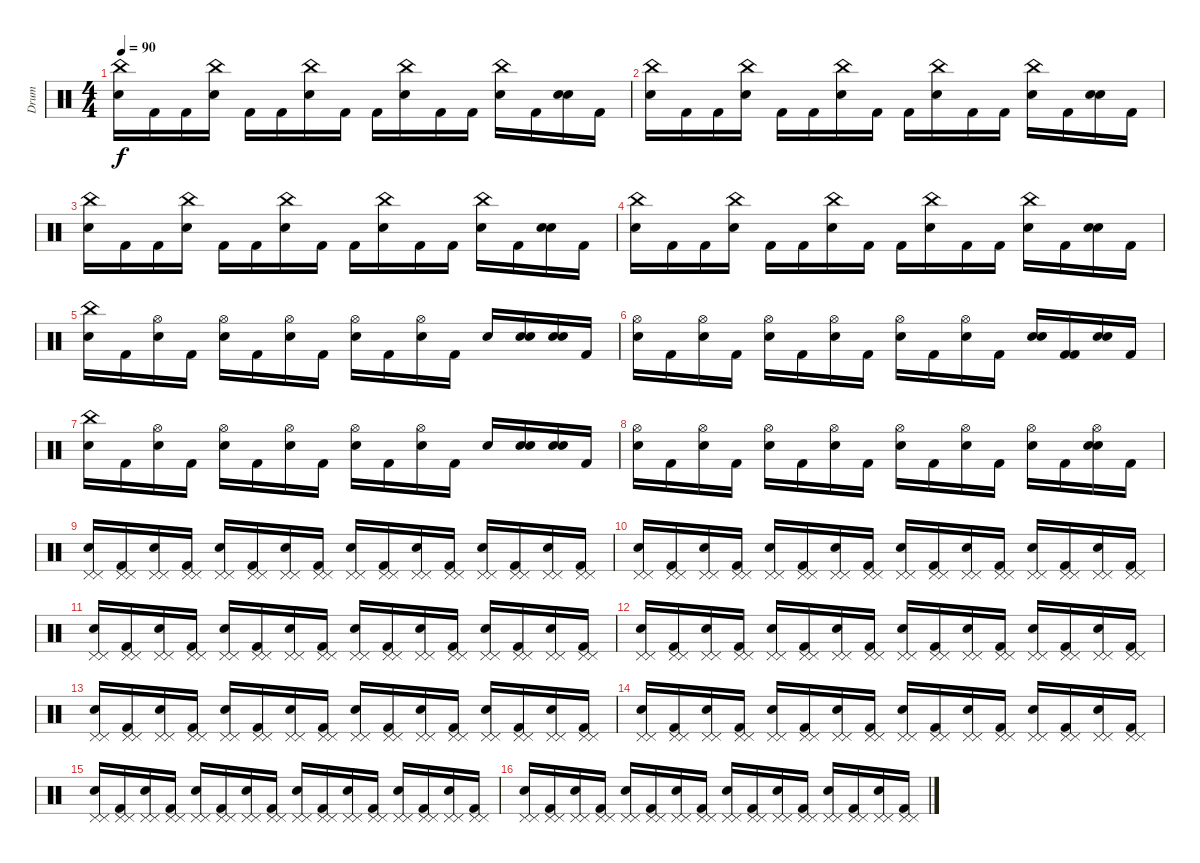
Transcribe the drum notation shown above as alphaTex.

\track ("Drum" "Drum") {instrument percussion}
\staff {score}
\articulation defaults
\ts (4 4)
\tempo 90
\clef neutral
\ks c
("China (hit)" "Electric Snare (hit)").16{dy f} "Kick (hit) 2".16 "Kick (hit) 2".16 ("China (hit)" "Electric Snare (hit)").16 "Kick (hit) 2".16 "Kick (hit) 2".16 ("China (hit)" "Electric Snare (hit)").16 "Kick (hit) 2".16 "Kick (hit) 2".16 ("China (hit)" "Electric Snare (hit)").16 "Kick (hit) 2".16 "Kick (hit) 2".16 ("China (hit)" "Electric Snare (hit)").16 "Kick (hit) 2".16 ("Electric Snare (hit)" "Electric Snare (hit)").16 "Kick (hit) 2".16 |
("China (hit)" "Electric Snare (hit)").16 "Kick (hit) 2".16 "Kick (hit) 2".16 ("China (hit)" "Electric Snare (hit)").16 "Kick (hit) 2".16 "Kick (hit) 2".16 ("China (hit)" "Electric Snare (hit)").16 "Kick (hit) 2".16 "Kick (hit) 2".16 ("China (hit)" "Electric Snare (hit)").16 "Kick (hit) 2".16 "Kick (hit) 2".16 ("China (hit)" "Electric Snare (hit)").16 "Kick (hit) 2".16 ("Electric Snare (hit)" "Electric Snare (hit)").16 "Kick (hit) 2".16 |
("China (hit)" "Electric Snare (hit)").16 "Kick (hit) 2".16 "Kick (hit) 2".16 ("China (hit)" "Electric Snare (hit)").16 "Kick (hit) 2".16 "Kick (hit) 2".16 ("China (hit)" "Electric Snare (hit)").16 "Kick (hit) 2".16 "Kick (hit) 2".16 ("China (hit)" "Electric Snare (hit)").16 "Kick (hit) 2".16 "Kick (hit) 2".16 ("China (hit)" "Electric Snare (hit)").16 "Kick (hit) 2".16 ("Electric Snare (hit)" "Electric Snare (hit)").16 "Kick (hit) 2".16 |
("China (hit)" "Electric Snare (hit)").16 "Kick (hit) 2".16 "Kick (hit) 2".16 ("China (hit)" "Electric Snare (hit)").16 "Kick (hit) 2".16 "Kick (hit) 2".16 ("China (hit)" "Electric Snare (hit)").16 "Kick (hit) 2".16 "Kick (hit) 2".16 ("China (hit)" "Electric Snare (hit)").16 "Kick (hit) 2".16 "Kick (hit) 2".16 ("China (hit)" "Electric Snare (hit)").16 "Kick (hit) 2".16 ("Electric Snare (hit)" "Electric Snare (hit)").16 "Kick (hit) 2".16 |
("China (hit)" "Electric Snare (hit)").16 "Kick (hit) 2".16 ("Hi-Hat (open)" "Electric Snare (hit)").16 "Kick (hit) 2".16 ("Hi-Hat (open)" "Electric Snare (hit)").16 "Kick (hit) 2".16 ("Hi-Hat (open)" "Electric Snare (hit)").16 "Kick (hit) 2".16 ("Hi-Hat (open)" "Electric Snare (hit)").16 "Kick (hit) 2".16 ("Hi-Hat (open)" "Electric Snare (hit)").16 "Kick (hit) 2".16 "Electric Snare (hit)".16 ("Electric Snare (hit)" "Electric Snare (hit)").16 ("Electric Snare (hit)" "Electric Snare (hit)").16 "Kick (hit) 2".16 |
("Hi-Hat (open)" "Electric Snare (hit)").16 "Kick (hit) 2".16 ("Hi-Hat (open)" "Electric Snare (hit)").16 "Kick (hit) 2".16 ("Hi-Hat (open)" "Electric Snare (hit)").16 "Kick (hit) 2".16 ("Hi-Hat (open)" "Electric Snare (hit)").16 "Kick (hit) 2".16 ("Hi-Hat (open)" "Electric Snare (hit)").16 "Kick (hit) 2".16 ("Hi-Hat (open)" "Electric Snare (hit)").16 "Kick (hit) 2".16 ("Electric Snare (hit)" "Electric Snare (hit)").16 ("Kick (hit) 2" "Kick (hit) 2").16 ("Electric Snare (hit)" "Electric Snare (hit)").16 "Kick (hit) 2".16 |
("China (hit)" "Electric Snare (hit)").16 "Kick (hit) 2".16 ("Hi-Hat (open)" "Electric Snare (hit)").16 "Kick (hit) 2".16 ("Hi-Hat (open)" "Electric Snare (hit)").16 "Kick (hit) 2".16 ("Hi-Hat (open)" "Electric Snare (hit)").16 "Kick (hit) 2".16 ("Hi-Hat (open)" "Electric Snare (hit)").16 "Kick (hit) 2".16 ("Hi-Hat (open)" "Electric Snare (hit)").16 "Kick (hit) 2".16 "Electric Snare (hit)".16 ("Electric Snare (hit)" "Electric Snare (hit)").16 ("Electric Snare (hit)" "Electric Snare (hit)").16 "Kick (hit) 2".16 |
("Hi-Hat (open)" "Electric Snare (hit)").16 "Kick (hit) 2".16 ("Hi-Hat (open)" "Electric Snare (hit)").16 "Kick (hit) 2".16 ("Hi-Hat (open)" "Electric Snare (hit)").16 "Kick (hit) 2".16 ("Hi-Hat (open)" "Electric Snare (hit)").16 "Kick (hit) 2".16 ("Hi-Hat (open)" "Electric Snare (hit)").16 "Kick (hit) 2".16 ("Hi-Hat (open)" "Electric Snare (hit)").16 "Kick (hit) 2".16 ("Hi-Hat (open)" "Electric Snare (hit)").16 "Kick (hit) 2".16 ("Hi-Hat (open)" "Electric Snare (hit)" "Electric Snare (hit)").16 "Kick (hit) 2".16 |
("Pedal Hi-Hat (hit)" "Electric Snare (hit)" "Pedal Hi-Hat (hit)").16 ("Pedal Hi-Hat (hit)" "Kick (hit) 2" "Pedal Hi-Hat (hit)").16 ("Pedal Hi-Hat (hit)" "Electric Snare (hit)" "Pedal Hi-Hat (hit)").16 ("Pedal Hi-Hat (hit)" "Kick (hit) 2" "Pedal Hi-Hat (hit)").16 ("Pedal Hi-Hat (hit)" "Electric Snare (hit)" "Pedal Hi-Hat (hit)").16 ("Pedal Hi-Hat (hit)" "Kick (hit) 2" "Pedal Hi-Hat (hit)").16 ("Pedal Hi-Hat (hit)" "Electric Snare (hit)" "Pedal Hi-Hat (hit)").16 ("Pedal Hi-Hat (hit)" "Kick (hit) 2" "Pedal Hi-Hat (hit)").16 ("Pedal Hi-Hat (hit)" "Electric Snare (hit)" "Pedal Hi-Hat (hit)").16 ("Pedal Hi-Hat (hit)" "Kick (hit) 2" "Pedal Hi-Hat (hit)").16 ("Pedal Hi-Hat (hit)" "Electric Snare (hit)" "Pedal Hi-Hat (hit)").16 ("Pedal Hi-Hat (hit)" "Kick (hit) 2" "Pedal Hi-Hat (hit)").16 ("Pedal Hi-Hat (hit)" "Electric Snare (hit)" "Pedal Hi-Hat (hit)").16 ("Pedal Hi-Hat (hit)" "Kick (hit) 2" "Pedal Hi-Hat (hit)").16 ("Pedal Hi-Hat (hit)" "Electric Snare (hit)" "Pedal Hi-Hat (hit)").16 ("Pedal Hi-Hat (hit)" "Kick (hit) 2" "Pedal Hi-Hat (hit)").16 |
("Pedal Hi-Hat (hit)" "Electric Snare (hit)" "Pedal Hi-Hat (hit)").16 ("Pedal Hi-Hat (hit)" "Kick (hit) 2" "Pedal Hi-Hat (hit)").16 ("Pedal Hi-Hat (hit)" "Electric Snare (hit)" "Pedal Hi-Hat (hit)").16 ("Pedal Hi-Hat (hit)" "Kick (hit) 2" "Pedal Hi-Hat (hit)").16 ("Pedal Hi-Hat (hit)" "Electric Snare (hit)" "Pedal Hi-Hat (hit)").16 ("Pedal Hi-Hat (hit)" "Kick (hit) 2" "Pedal Hi-Hat (hit)").16 ("Pedal Hi-Hat (hit)" "Electric Snare (hit)" "Pedal Hi-Hat (hit)").16 ("Pedal Hi-Hat (hit)" "Kick (hit) 2" "Pedal Hi-Hat (hit)").16 ("Pedal Hi-Hat (hit)" "Electric Snare (hit)" "Pedal Hi-Hat (hit)").16 ("Pedal Hi-Hat (hit)" "Kick (hit) 2" "Pedal Hi-Hat (hit)").16 ("Pedal Hi-Hat (hit)" "Electric Snare (hit)" "Pedal Hi-Hat (hit)").16 ("Pedal Hi-Hat (hit)" "Kick (hit) 2" "Pedal Hi-Hat (hit)").16 ("Pedal Hi-Hat (hit)" "Electric Snare (hit)" "Pedal Hi-Hat (hit)").16 ("Pedal Hi-Hat (hit)" "Kick (hit) 2" "Pedal Hi-Hat (hit)").16 ("Pedal Hi-Hat (hit)" "Electric Snare (hit)" "Pedal Hi-Hat (hit)").16 ("Pedal Hi-Hat (hit)" "Kick (hit) 2" "Pedal Hi-Hat (hit)").16 |
("Pedal Hi-Hat (hit)" "Electric Snare (hit)" "Pedal Hi-Hat (hit)").16 ("Pedal Hi-Hat (hit)" "Kick (hit) 2" "Pedal Hi-Hat (hit)").16 ("Pedal Hi-Hat (hit)" "Electric Snare (hit)" "Pedal Hi-Hat (hit)").16 ("Pedal Hi-Hat (hit)" "Kick (hit) 2" "Pedal Hi-Hat (hit)").16 ("Pedal Hi-Hat (hit)" "Electric Snare (hit)" "Pedal Hi-Hat (hit)").16 ("Pedal Hi-Hat (hit)" "Kick (hit) 2" "Pedal Hi-Hat (hit)").16 ("Pedal Hi-Hat (hit)" "Electric Snare (hit)" "Pedal Hi-Hat (hit)").16 ("Pedal Hi-Hat (hit)" "Kick (hit) 2" "Pedal Hi-Hat (hit)").16 ("Pedal Hi-Hat (hit)" "Electric Snare (hit)" "Pedal Hi-Hat (hit)").16 ("Pedal Hi-Hat (hit)" "Kick (hit) 2" "Pedal Hi-Hat (hit)").16 ("Pedal Hi-Hat (hit)" "Electric Snare (hit)" "Pedal Hi-Hat (hit)").16 ("Pedal Hi-Hat (hit)" "Kick (hit) 2" "Pedal Hi-Hat (hit)").16 ("Pedal Hi-Hat (hit)" "Electric Snare (hit)" "Pedal Hi-Hat (hit)").16 ("Pedal Hi-Hat (hit)" "Kick (hit) 2" "Pedal Hi-Hat (hit)").16 ("Pedal Hi-Hat (hit)" "Electric Snare (hit)" "Pedal Hi-Hat (hit)").16 ("Pedal Hi-Hat (hit)" "Kick (hit) 2" "Pedal Hi-Hat (hit)").16 |
("Pedal Hi-Hat (hit)" "Electric Snare (hit)" "Pedal Hi-Hat (hit)").16 ("Pedal Hi-Hat (hit)" "Kick (hit) 2" "Pedal Hi-Hat (hit)").16 ("Pedal Hi-Hat (hit)" "Electric Snare (hit)" "Pedal Hi-Hat (hit)").16 ("Pedal Hi-Hat (hit)" "Kick (hit) 2" "Pedal Hi-Hat (hit)").16 ("Pedal Hi-Hat (hit)" "Electric Snare (hit)" "Pedal Hi-Hat (hit)").16 ("Pedal Hi-Hat (hit)" "Kick (hit) 2" "Pedal Hi-Hat (hit)").16 ("Pedal Hi-Hat (hit)" "Electric Snare (hit)" "Pedal Hi-Hat (hit)").16 ("Pedal Hi-Hat (hit)" "Kick (hit) 2" "Pedal Hi-Hat (hit)").16 ("Pedal Hi-Hat (hit)" "Electric Snare (hit)" "Pedal Hi-Hat (hit)").16 ("Pedal Hi-Hat (hit)" "Kick (hit) 2" "Pedal Hi-Hat (hit)").16 ("Pedal Hi-Hat (hit)" "Electric Snare (hit)" "Pedal Hi-Hat (hit)").16 ("Pedal Hi-Hat (hit)" "Kick (hit) 2" "Pedal Hi-Hat (hit)").16 ("Pedal Hi-Hat (hit)" "Electric Snare (hit)" "Pedal Hi-Hat (hit)").16 ("Pedal Hi-Hat (hit)" "Kick (hit) 2" "Pedal Hi-Hat (hit)").16 ("Pedal Hi-Hat (hit)" "Electric Snare (hit)" "Pedal Hi-Hat (hit)").16 ("Pedal Hi-Hat (hit)" "Kick (hit) 2" "Pedal Hi-Hat (hit)").16 |
("Pedal Hi-Hat (hit)" "Electric Snare (hit)" "Pedal Hi-Hat (hit)").16 ("Pedal Hi-Hat (hit)" "Kick (hit) 2" "Pedal Hi-Hat (hit)").16 ("Pedal Hi-Hat (hit)" "Electric Snare (hit)" "Pedal Hi-Hat (hit)").16 ("Pedal Hi-Hat (hit)" "Kick (hit) 2" "Pedal Hi-Hat (hit)").16 ("Pedal Hi-Hat (hit)" "Electric Snare (hit)" "Pedal Hi-Hat (hit)").16 ("Pedal Hi-Hat (hit)" "Kick (hit) 2" "Pedal Hi-Hat (hit)").16 ("Pedal Hi-Hat (hit)" "Electric Snare (hit)" "Pedal Hi-Hat (hit)").16 ("Pedal Hi-Hat (hit)" "Kick (hit) 2" "Pedal Hi-Hat (hit)").16 ("Pedal Hi-Hat (hit)" "Electric Snare (hit)" "Pedal Hi-Hat (hit)").16 ("Pedal Hi-Hat (hit)" "Kick (hit) 2" "Pedal Hi-Hat (hit)").16 ("Pedal Hi-Hat (hit)" "Electric Snare (hit)" "Pedal Hi-Hat (hit)").16 ("Pedal Hi-Hat (hit)" "Kick (hit) 2" "Pedal Hi-Hat (hit)").16 ("Pedal Hi-Hat (hit)" "Electric Snare (hit)" "Pedal Hi-Hat (hit)").16 ("Pedal Hi-Hat (hit)" "Kick (hit) 2" "Pedal Hi-Hat (hit)").16 ("Pedal Hi-Hat (hit)" "Electric Snare (hit)" "Pedal Hi-Hat (hit)").16 ("Pedal Hi-Hat (hit)" "Kick (hit) 2" "Pedal Hi-Hat (hit)").16 |
("Pedal Hi-Hat (hit)" "Electric Snare (hit)" "Pedal Hi-Hat (hit)").16 ("Pedal Hi-Hat (hit)" "Kick (hit) 2" "Pedal Hi-Hat (hit)").16 ("Pedal Hi-Hat (hit)" "Electric Snare (hit)" "Pedal Hi-Hat (hit)").16 ("Pedal Hi-Hat (hit)" "Kick (hit) 2" "Pedal Hi-Hat (hit)").16 ("Pedal Hi-Hat (hit)" "Electric Snare (hit)" "Pedal Hi-Hat (hit)").16 ("Pedal Hi-Hat (hit)" "Kick (hit) 2" "Pedal Hi-Hat (hit)").16 ("Pedal Hi-Hat (hit)" "Electric Snare (hit)" "Pedal Hi-Hat (hit)").16 ("Pedal Hi-Hat (hit)" "Kick (hit) 2" "Pedal Hi-Hat (hit)").16 ("Pedal Hi-Hat (hit)" "Electric Snare (hit)" "Pedal Hi-Hat (hit)").16 ("Pedal Hi-Hat (hit)" "Kick (hit) 2" "Pedal Hi-Hat (hit)").16 ("Pedal Hi-Hat (hit)" "Electric Snare (hit)" "Pedal Hi-Hat (hit)").16 ("Pedal Hi-Hat (hit)" "Kick (hit) 2" "Pedal Hi-Hat (hit)").16 ("Pedal Hi-Hat (hit)" "Electric Snare (hit)" "Pedal Hi-Hat (hit)").16 ("Pedal Hi-Hat (hit)" "Kick (hit) 2" "Pedal Hi-Hat (hit)").16 ("Pedal Hi-Hat (hit)" "Electric Snare (hit)" "Pedal Hi-Hat (hit)").16 ("Pedal Hi-Hat (hit)" "Kick (hit) 2" "Pedal Hi-Hat (hit)").16 |
("Pedal Hi-Hat (hit)" "Electric Snare (hit)" "Pedal Hi-Hat (hit)").16 ("Pedal Hi-Hat (hit)" "Kick (hit) 2" "Pedal Hi-Hat (hit)").16 ("Pedal Hi-Hat (hit)" "Electric Snare (hit)" "Pedal Hi-Hat (hit)").16 ("Pedal Hi-Hat (hit)" "Kick (hit) 2" "Pedal Hi-Hat (hit)").16 ("Pedal Hi-Hat (hit)" "Electric Snare (hit)" "Pedal Hi-Hat (hit)").16 ("Pedal Hi-Hat (hit)" "Kick (hit) 2" "Pedal Hi-Hat (hit)").16 ("Pedal Hi-Hat (hit)" "Electric Snare (hit)" "Pedal Hi-Hat (hit)").16 ("Pedal Hi-Hat (hit)" "Kick (hit) 2" "Pedal Hi-Hat (hit)").16 ("Pedal Hi-Hat (hit)" "Electric Snare (hit)" "Pedal Hi-Hat (hit)").16 ("Pedal Hi-Hat (hit)" "Kick (hit) 2" "Pedal Hi-Hat (hit)").16 ("Pedal Hi-Hat (hit)" "Electric Snare (hit)" "Pedal Hi-Hat (hit)").16 ("Pedal Hi-Hat (hit)" "Kick (hit) 2" "Pedal Hi-Hat (hit)").16 ("Pedal Hi-Hat (hit)" "Electric Snare (hit)" "Pedal Hi-Hat (hit)").16 ("Pedal Hi-Hat (hit)" "Kick (hit) 2" "Pedal Hi-Hat (hit)").16 ("Pedal Hi-Hat (hit)" "Electric Snare (hit)" "Pedal Hi-Hat (hit)").16 ("Pedal Hi-Hat (hit)" "Kick (hit) 2" "Pedal Hi-Hat (hit)").16 |
("Pedal Hi-Hat (hit)" "Electric Snare (hit)" "Pedal Hi-Hat (hit)").16 ("Pedal Hi-Hat (hit)" "Kick (hit) 2" "Pedal Hi-Hat (hit)").16 ("Pedal Hi-Hat (hit)" "Electric Snare (hit)" "Pedal Hi-Hat (hit)").16 ("Pedal Hi-Hat (hit)" "Kick (hit) 2" "Pedal Hi-Hat (hit)").16 ("Pedal Hi-Hat (hit)" "Electric Snare (hit)" "Pedal Hi-Hat (hit)").16 ("Pedal Hi-Hat (hit)" "Kick (hit) 2" "Pedal Hi-Hat (hit)").16 ("Pedal Hi-Hat (hit)" "Electric Snare (hit)" "Pedal Hi-Hat (hit)").16 ("Pedal Hi-Hat (hit)" "Kick (hit) 2" "Pedal Hi-Hat (hit)").16 ("Pedal Hi-Hat (hit)" "Electric Snare (hit)" "Pedal Hi-Hat (hit)").16 ("Pedal Hi-Hat (hit)" "Kick (hit) 2" "Pedal Hi-Hat (hit)").16 ("Pedal Hi-Hat (hit)" "Electric Snare (hit)" "Pedal Hi-Hat (hit)").16 ("Pedal Hi-Hat (hit)" "Kick (hit) 2" "Pedal Hi-Hat (hit)").16 ("Pedal Hi-Hat (hit)" "Electric Snare (hit)" "Pedal Hi-Hat (hit)").16 ("Pedal Hi-Hat (hit)" "Kick (hit) 2" "Pedal Hi-Hat (hit)").16 ("Pedal Hi-Hat (hit)" "Electric Snare (hit)" "Pedal Hi-Hat (hit)").16 ("Pedal Hi-Hat (hit)" "Kick (hit) 2" "Pedal Hi-Hat (hit)").16
